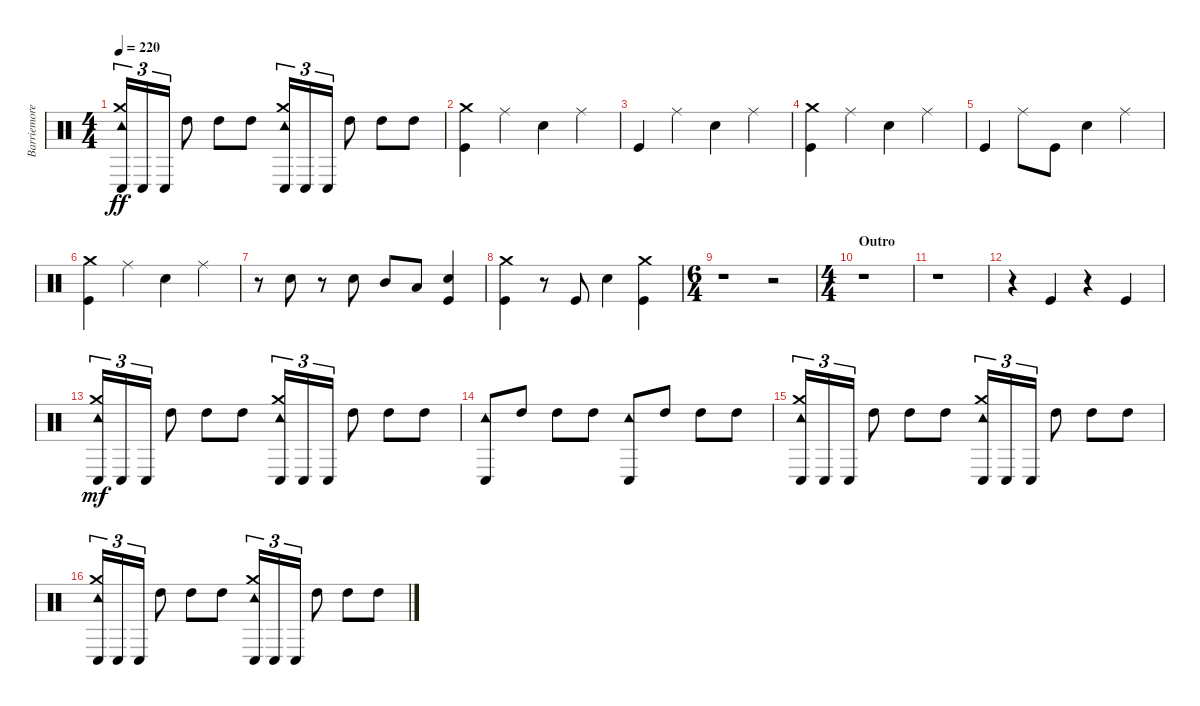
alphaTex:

\track ("Barriemore Barlow (Drums)" "Barriemore") {instrument percussion}
\staff {score}
\articulation defaults
\ts (4 4)
\tempo 220
\clef neutral
\ks c
("Tambourine (hit)" "Crash medium (hit)" "Conga low (hit)").16{tu (3 2) dy ff} "Conga low (hit)".16{tu (3 2)} "Conga low (hit)".16{tu (3 2)} "High Tom (hit)".8 "High Tom (hit)".8 "High Tom (hit)".8 ("Tambourine (hit)" "Crash medium (hit)" "Conga low (hit)").16{tu (3 2)} "Conga low (hit)".16{tu (3 2)} "Conga low (hit)".16{tu (3 2)} "High Tom (hit)".8 "High Tom (hit)".8 "High Tom (hit)".8 |
("Kick (hit)" "Crash medium (hit)").4 "Ride (middle)".4 "Snare (hit) 2".4 "Ride (middle)".4 |
"Kick (hit)".4 "Ride (middle)".4 "Snare (hit) 2".4 "Ride (middle)".4 |
("Kick (hit)" "Crash medium (hit)").4 "Ride (middle)".4 "Snare (hit) 2".4 "Ride (middle)".4 |
"Kick (hit)".4 "Ride (middle)".8 "Kick (hit)".8 "Snare (hit) 2".4 "Ride (middle)".4 |
("Kick (hit)" "Crash medium (hit)").4 "Ride (middle)".4 "Snare (hit) 2".4 "Ride (middle)".4 |
r.8 "Snare (hit) 2".8 r.8 "Snare (hit) 2".8 "Mid Tom (hit)".8 "Low Tom (hit)".8 ("Kick (hit)" "Snare (hit) 2").4 |
("Kick (hit)" "Crash medium (hit)").4 r.8 "Kick (hit)".8 "Snare (hit) 2".4 ("Kick (hit)" "Crash medium (hit)").4 |
\ts (6 4)
r.1 r.2 |
\ts (4 4)
\section ("" "Outro")
r.1 |
r.1 |
r.4 "Kick (hit)".4 r.4 "Kick (hit)".4 |
("Tambourine (hit)" "Crash medium (hit)" "Conga low (hit)").16{tu (3 2) dy mf} "Conga low (hit)".16{tu (3 2)} "Conga low (hit)".16{tu (3 2)} "High Tom (hit)".8 "High Tom (hit)".8 "High Tom (hit)".8 ("Tambourine (hit)" "Crash medium (hit)" "Conga low (hit)").16{tu (3 2)} "Conga low (hit)".16{tu (3 2)} "Conga low (hit)".16{tu (3 2)} "High Tom (hit)".8 "High Tom (hit)".8 "High Tom (hit)".8 |
("Tambourine (hit)" "Conga low (hit)").8 "High Tom (hit)".8 "High Tom (hit)".8 "High Tom (hit)".8 ("Tambourine (hit)" "Conga low (hit)").8 "High Tom (hit)".8 "High Tom (hit)".8 "High Tom (hit)".8 |
("Tambourine (hit)" "Crash medium (hit)" "Conga low (hit)").16{tu (3 2)} "Conga low (hit)".16{tu (3 2)} "Conga low (hit)".16{tu (3 2)} "High Tom (hit)".8 "High Tom (hit)".8 "High Tom (hit)".8 ("Tambourine (hit)" "Crash medium (hit)" "Conga low (hit)").16{tu (3 2)} "Conga low (hit)".16{tu (3 2)} "Conga low (hit)".16{tu (3 2)} "High Tom (hit)".8 "High Tom (hit)".8 "High Tom (hit)".8 |
("Tambourine (hit)" "Crash medium (hit)" "Conga low (hit)").16{tu (3 2)} "Conga low (hit)".16{tu (3 2)} "Conga low (hit)".16{tu (3 2)} "High Tom (hit)".8 "High Tom (hit)".8 "High Tom (hit)".8 ("Tambourine (hit)" "Crash medium (hit)" "Conga low (hit)").16{tu (3 2)} "Conga low (hit)".16{tu (3 2)} "Conga low (hit)".16{tu (3 2)} "High Tom (hit)".8 "High Tom (hit)".8 "High Tom (hit)".8
